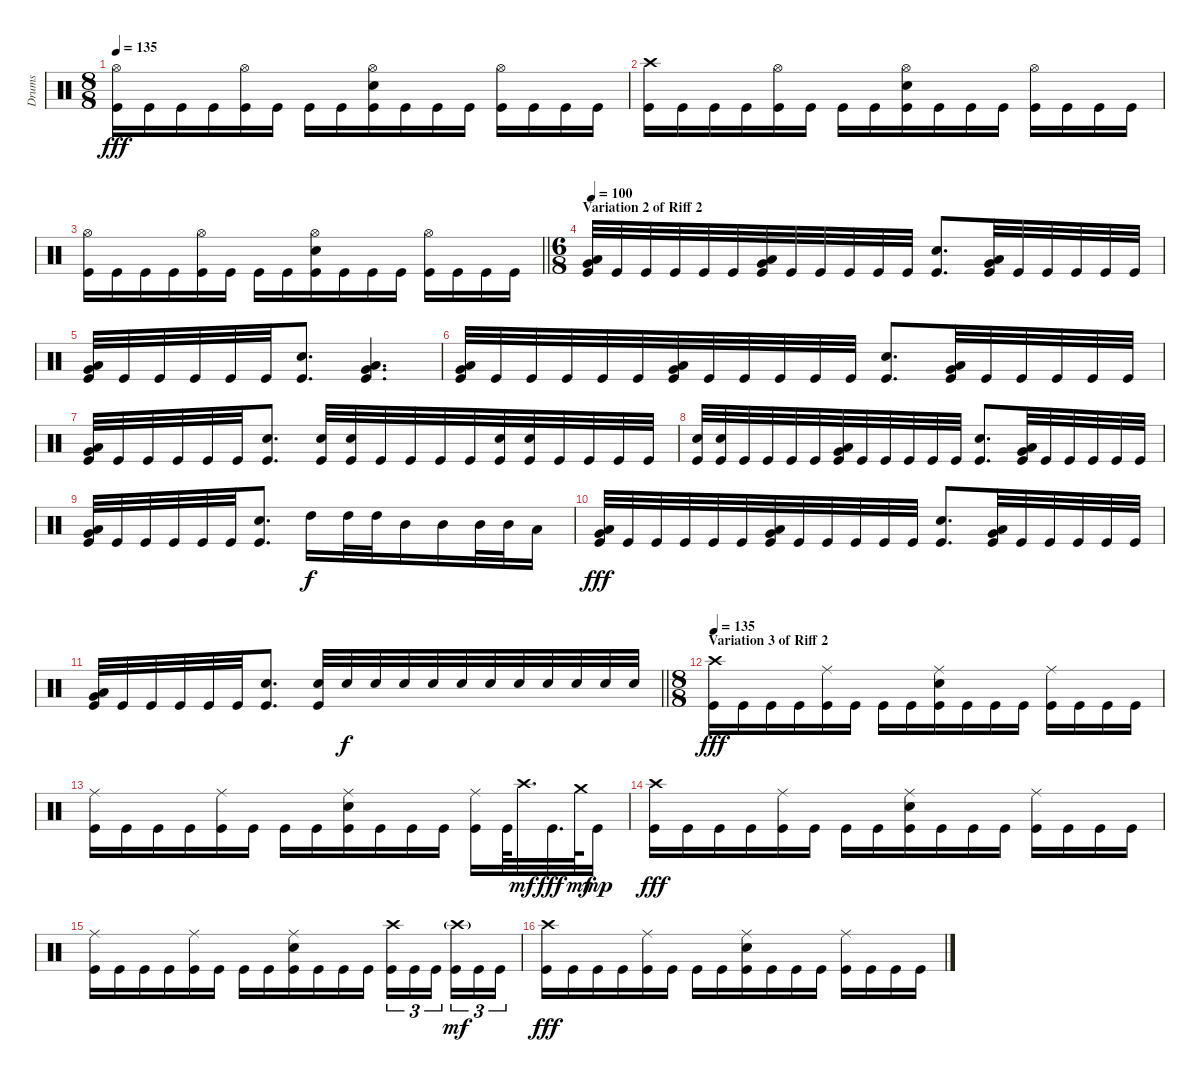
\track ("Drums" "Drums") {instrument percussion}
\staff
\articulation defaults
\ts (8 8)
\tempo 135
\clef neutral
\ks c
("Hi-Hat (open)" "Kick (hit)").16{dy fff} "Kick (hit)".16 "Kick (hit)".16 "Kick (hit)".16 ("Hi-Hat (open)" "Kick (hit)").16 "Kick (hit)".16 "Kick (hit)".16 "Kick (hit)".16 ("Hi-Hat (open)" "Snare (hit) 2" "Kick (hit)").16 "Kick (hit)".16 "Kick (hit)".16 "Kick (hit)".16 ("Hi-Hat (open)" "Kick (hit)").16 "Kick (hit)".16 "Kick (hit)".16 "Kick (hit)".16 |
("Crash high (hit)" "Kick (hit)").16 "Kick (hit)".16 "Kick (hit)".16 "Kick (hit)".16 ("Hi-Hat (open)" "Kick (hit)").16 "Kick (hit)".16 "Kick (hit)".16 "Kick (hit)".16 ("Hi-Hat (open)" "Snare (hit) 2" "Kick (hit)").16 "Kick (hit)".16 "Kick (hit)".16 "Kick (hit)".16 ("Hi-Hat (open)" "Kick (hit)").16 "Kick (hit)".16 "Kick (hit)".16 "Kick (hit)".16 |
\barLineRight lightlight
("Hi-Hat (open)" "Kick (hit)").16 "Kick (hit)".16 "Kick (hit)".16 "Kick (hit)".16 ("Hi-Hat (open)" "Kick (hit)").16 "Kick (hit)".16 "Kick (hit)".16 "Kick (hit)".16 ("Hi-Hat (open)" "Snare (hit) 2" "Kick (hit)").16 "Kick (hit)".16 "Kick (hit)".16 "Kick (hit)".16 ("Hi-Hat (open)" "Kick (hit)").16 "Kick (hit)".16 "Kick (hit)".16 "Kick (hit)".16 |
\ts (6 8)
\section ("" "Variation 2 of Riff 2")
\tempo 100
("Low Tom (hit)" "Very Low Tom (hit)" "Kick (hit)").32 "Kick (hit)".32 "Kick (hit)".32 "Kick (hit)".32 "Kick (hit)".32 "Kick (hit)".32 ("Very Low Tom (hit)" "Low Floor Tom (hit)" "Kick (hit)").32 "Kick (hit)".32 "Kick (hit)".32 "Kick (hit)".32 "Kick (hit)".32 "Kick (hit)".32 ("Snare (hit) 2" "Kick (hit)").8{d} ("Low Tom (hit)" "Very Low Tom (hit)" "Kick (hit)").32 "Kick (hit)".32 "Kick (hit)".32 "Kick (hit)".32 "Kick (hit)".32 "Kick (hit)".32 |
("Very Low Tom (hit)" "Low Floor Tom (hit)" "Kick (hit)").32 "Kick (hit)".32 "Kick (hit)".32 "Kick (hit)".32 "Kick (hit)".32 "Kick (hit)".32 ("Snare (hit) 2" "Kick (hit)").8{d} ("Very Low Tom (hit)" "Low Floor Tom (hit)" "Kick (hit)").4{d} |
("Low Tom (hit)" "Very Low Tom (hit)" "Kick (hit)").32 "Kick (hit)".32 "Kick (hit)".32 "Kick (hit)".32 "Kick (hit)".32 "Kick (hit)".32 ("Very Low Tom (hit)" "Low Floor Tom (hit)" "Kick (hit)").32 "Kick (hit)".32 "Kick (hit)".32 "Kick (hit)".32 "Kick (hit)".32 "Kick (hit)".32 ("Snare (hit) 2" "Kick (hit)").8{d} ("Low Tom (hit)" "Very Low Tom (hit)" "Kick (hit)").32 "Kick (hit)".32 "Kick (hit)".32 "Kick (hit)".32 "Kick (hit)".32 "Kick (hit)".32 |
("Very Low Tom (hit)" "Low Floor Tom (hit)" "Kick (hit)").32 "Kick (hit)".32 "Kick (hit)".32 "Kick (hit)".32 "Kick (hit)".32 "Kick (hit)".32 ("Snare (hit) 2" "Kick (hit)").8{d} ("Snare (hit) 2" "Kick (hit)").32 ("Snare (hit) 2" "Kick (hit)").32 "Kick (hit)".32 "Kick (hit)".32 "Kick (hit)".32 "Kick (hit)".32 ("Snare (hit) 2" "Kick (hit)").32 ("Snare (hit) 2" "Kick (hit)").32 "Kick (hit)".32 "Kick (hit)".32 "Kick (hit)".32 "Kick (hit)".32 |
("Snare (hit) 2" "Kick (hit)").32 ("Snare (hit) 2" "Kick (hit)").32 "Kick (hit)".32 "Kick (hit)".32 "Kick (hit)".32 "Kick (hit)".32 ("Very Low Tom (hit)" "Low Floor Tom (hit)" "Kick (hit)").32 "Kick (hit)".32 "Kick (hit)".32 "Kick (hit)".32 "Kick (hit)".32 "Kick (hit)".32 ("Snare (hit) 2" "Kick (hit)").8{d} ("Low Tom (hit)" "Very Low Tom (hit)" "Kick (hit)").32 "Kick (hit)".32 "Kick (hit)".32 "Kick (hit)".32 "Kick (hit)".32 "Kick (hit)".32 |
("Very Low Tom (hit)" "Low Floor Tom (hit)" "Kick (hit)").32 "Kick (hit)".32 "Kick (hit)".32 "Kick (hit)".32 "Kick (hit)".32 "Kick (hit)".32 ("Snare (hit) 2" "Kick (hit)").8{d} "High Tom (hit)".16{dy f} "High Tom (hit)".32 "High Tom (hit)".32 "Mid Tom (hit)".16 "Mid Tom (hit)".16 "Mid Tom (hit)".32 "Mid Tom (hit)".32 "Low Tom (hit)".16 |
("Low Tom (hit)" "Very Low Tom (hit)" "Kick (hit)").32{dy fff} "Kick (hit)".32 "Kick (hit)".32 "Kick (hit)".32 "Kick (hit)".32 "Kick (hit)".32 ("Very Low Tom (hit)" "Low Floor Tom (hit)" "Kick (hit)").32 "Kick (hit)".32 "Kick (hit)".32 "Kick (hit)".32 "Kick (hit)".32 "Kick (hit)".32 ("Snare (hit) 2" "Kick (hit)").8{d} ("Low Tom (hit)" "Very Low Tom (hit)" "Kick (hit)").32 "Kick (hit)".32 "Kick (hit)".32 "Kick (hit)".32 "Kick (hit)".32 "Kick (hit)".32 |
\barLineRight lightlight
("Very Low Tom (hit)" "Low Floor Tom (hit)" "Kick (hit)").32 "Kick (hit)".32 "Kick (hit)".32 "Kick (hit)".32 "Kick (hit)".32 "Kick (hit)".32 ("Snare (hit) 2" "Kick (hit)").8{d} ("Snare (hit) 2" "Kick (hit)").32 "Snare (hit) 2".32{dy f} "Snare (hit) 2".32 "Snare (hit) 2".32 "Snare (hit) 2".32 "Snare (hit) 2".32 "Snare (hit) 2".32 "Snare (hit) 2".32 "Snare (hit) 2".32 "Snare (hit) 2".32 "Snare (hit) 2".32 "Snare (hit) 2".32 |
\ts (8 8)
\section ("" "Variation 3 of Riff 2")
\tempo 135
("Crash high (hit)" "Kick (hit)").16{dy fff} "Kick (hit)".16 "Kick (hit)".16 "Kick (hit)".16 ("Ride (middle)" "Kick (hit)").16 "Kick (hit)".16 "Kick (hit)".16 "Kick (hit)".16 ("Ride (middle)" "Snare (hit) 2" "Kick (hit)").16 "Kick (hit)".16 "Kick (hit)".16 "Kick (hit)".16 ("Ride (middle)" "Kick (hit)").16 "Kick (hit)".16 "Kick (hit)".16 "Kick (hit)".16 |
("Ride (middle)" "Kick (hit)").16 "Kick (hit)".16 "Kick (hit)".16 "Kick (hit)".16 ("Ride (middle)" "Kick (hit)").16 "Kick (hit)".16 "Kick (hit)".16 "Kick (hit)".16 ("Ride (middle)" "Snare (hit) 2" "Kick (hit)").16 "Kick (hit)".16 "Kick (hit)".16 "Kick (hit)".16 ("Ride (middle)" "Kick (hit)").16 "Kick (hit)".64 "Crash high (hit)".32{d dy mf} "Kick (hit)".32{d dy fff} "Crash medium (hit)".64{dy mf} "Kick (hit)".16{dy mp} |
("Crash high (hit)" "Kick (hit)").16{dy fff} "Kick (hit)".16 "Kick (hit)".16 "Kick (hit)".16 ("Ride (middle)" "Kick (hit)").16 "Kick (hit)".16 "Kick (hit)".16 "Kick (hit)".16 ("Ride (middle)" "Snare (hit) 2" "Kick (hit)").16 "Kick (hit)".16 "Kick (hit)".16 "Kick (hit)".16 ("Ride (middle)" "Kick (hit)").16 "Kick (hit)".16 "Kick (hit)".16 "Kick (hit)".16 |
("Ride (middle)" "Kick (hit)").16 "Kick (hit)".16 "Kick (hit)".16 "Kick (hit)".16 ("Ride (middle)" "Kick (hit)").16 "Kick (hit)".16 "Kick (hit)".16 "Kick (hit)".16 ("Ride (middle)" "Snare (hit) 2" "Kick (hit)").16 "Kick (hit)".16 "Kick (hit)".16 "Kick (hit)".16 ("Crash high (hit)" "Kick (hit)").16{tu (3 2)} "Kick (hit)".16{tu (3 2)} "Kick (hit)".16{tu (3 2)} ("Crash high (hit)"{g} "Kick (hit)").16{tu (3 2) dy mf} "Kick (hit)".16{tu (3 2)} "Kick (hit)".16{tu (3 2)} |
("Crash high (hit)" "Kick (hit)").16{dy fff} "Kick (hit)".16 "Kick (hit)".16 "Kick (hit)".16 ("Ride (middle)" "Kick (hit)").16 "Kick (hit)".16 "Kick (hit)".16 "Kick (hit)".16 ("Ride (middle)" "Snare (hit) 2" "Kick (hit)").16 "Kick (hit)".16 "Kick (hit)".16 "Kick (hit)".16 ("Ride (middle)" "Kick (hit)").16 "Kick (hit)".16 "Kick (hit)".16 "Kick (hit)".16
